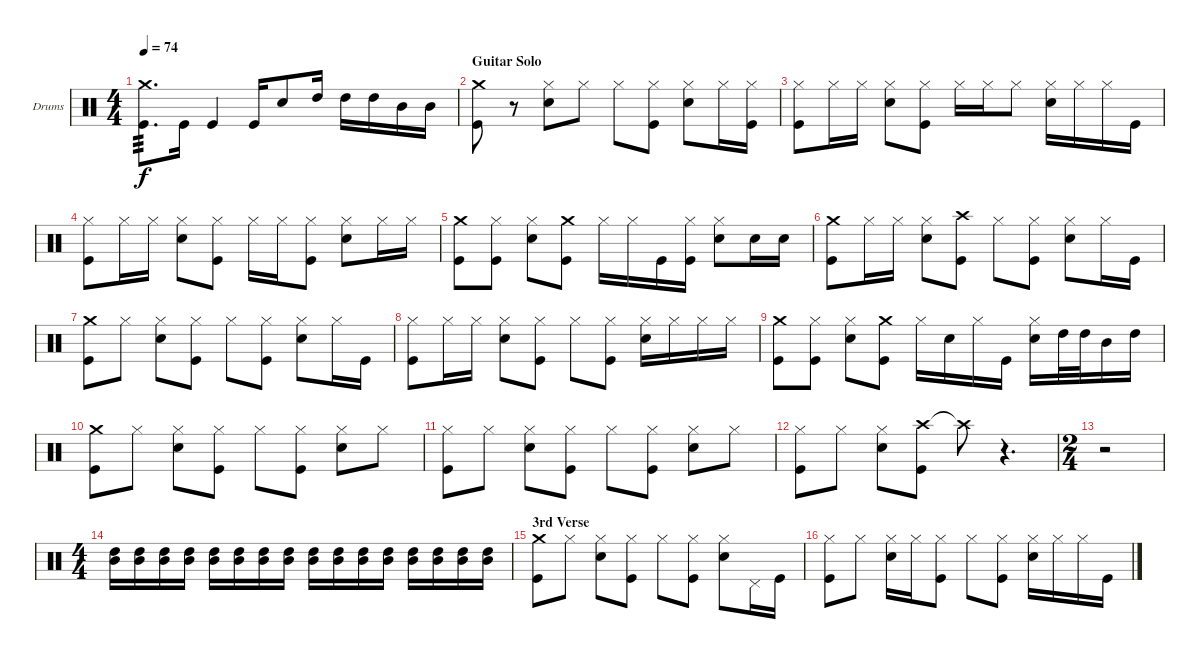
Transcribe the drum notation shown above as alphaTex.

\bracketExtendMode groupsimilarinstruments
\firstSystemTrackNameOrientation horizontal
\otherSystemsTrackNameOrientation horizontal
\track ("Drumkit" "Drums") {instrument percussion}
\staff {score}
\articulation defaults
\ts (4 4)
\tempo 74
\clef neutral
\ks c
("Crash medium (hit)" "Kick (hit)").8{d tp 3 dy f} "Kick (hit)".16 "Kick (hit)".4 "Kick (hit)".16 "Snare (hit) 2".8 "High Tom (hit)".16 "High Tom (hit)".16 "High Tom (hit)".16 "Mid Tom (hit)".16 "Mid Tom (hit)".16 |
\section ("" "Guitar Solo")
("Crash medium (hit)" "Kick (hit)").8 r.8 ("Hi-Hat (closed)" "Snare (hit) 2").8 "Hi-Hat (closed)".8 "Hi-Hat (closed)".8 ("Hi-Hat (closed)" "Kick (hit)").8 ("Hi-Hat (closed)" "Snare (hit) 2").8 "Hi-Hat (closed)".16 ("Hi-Hat (closed)" "Kick (hit)").16 |
("Hi-Hat (closed)" "Kick (hit)").8 "Hi-Hat (closed)".16 "Hi-Hat (closed)".16 ("Hi-Hat (closed)" "Snare (hit) 2").8 ("Hi-Hat (closed)" "Kick (hit)").8 "Hi-Hat (closed)".16 "Hi-Hat (closed)".16 "Hi-Hat (closed)".8 ("Hi-Hat (closed)" "Snare (hit) 2").16 "Hi-Hat (closed)".16 "Hi-Hat (closed)".16 "Kick (hit)".16 |
("Hi-Hat (closed)" "Kick (hit)").8 "Hi-Hat (closed)".16 "Hi-Hat (closed)".16 ("Hi-Hat (closed)" "Snare (hit) 2").8 ("Hi-Hat (closed)" "Kick (hit)").8 "Hi-Hat (closed)".16 "Hi-Hat (closed)".16 ("Hi-Hat (closed)" "Kick (hit)").8 ("Hi-Hat (closed)" "Snare (hit) 2").8 "Hi-Hat (closed)".16 "Hi-Hat (closed)".16 |
("Crash medium (hit)" "Kick (hit)").8 ("Hi-Hat (closed)" "Kick (hit)").8 ("Hi-Hat (closed)" "Snare (hit) 2").8 ("Crash medium (hit)" "Kick (hit)").8 "Hi-Hat (closed)".16 "Hi-Hat (closed)".16 "Kick (hit)".16 ("Hi-Hat (closed)" "Kick (hit)").16 ("Hi-Hat (closed)" "Snare (hit) 2").8 "Snare (hit) 2".16 "Snare (hit) 2".16 |
("Crash medium (hit)" "Kick (hit)").8 "Hi-Hat (closed)".16 "Hi-Hat (closed)".16 ("Hi-Hat (closed)" "Snare (hit) 2").8 ("Crash high (hit)" "Kick (hit)").8 "Hi-Hat (closed)".8 ("Hi-Hat (closed)" "Kick (hit)").8 ("Hi-Hat (closed)" "Snare (hit) 2").8 "Hi-Hat (closed)".16 "Kick (hit)".16 |
("Crash medium (hit)" "Kick (hit)").8 "Hi-Hat (closed)".8 ("Hi-Hat (closed)" "Snare (hit) 2").8 ("Hi-Hat (closed)" "Kick (hit)").8 "Hi-Hat (closed)".8 ("Hi-Hat (closed)" "Kick (hit)").8 ("Hi-Hat (closed)" "Snare (hit) 2").8 "Hi-Hat (closed)".16 "Kick (hit)".16 |
("Hi-Hat (closed)" "Kick (hit)").8 "Hi-Hat (closed)".16 "Hi-Hat (closed)".16 ("Hi-Hat (closed)" "Snare (hit) 2").8 ("Hi-Hat (closed)" "Kick (hit)").8 "Hi-Hat (closed)".8 ("Hi-Hat (closed)" "Kick (hit)").8 ("Hi-Hat (closed)" "Snare (hit) 2").16 "Hi-Hat (closed)".16 "Hi-Hat (closed)".16 "Hi-Hat (closed)".16 |
("Crash medium (hit)" "Kick (hit)").8 ("Hi-Hat (closed)" "Kick (hit)").8 ("Hi-Hat (closed)" "Snare (hit) 2").8 ("Crash medium (hit)" "Kick (hit)").8 "Hi-Hat (closed)".16 "Snare (hit) 2".16 "Hi-Hat (closed)".16 "Kick (hit)".16 ("Hi-Hat (closed)" "Snare (hit) 2").16 "High Tom (hit)".32 "High Tom (hit)".32 "Mid Tom (hit)".16 "High Tom (hit)".16 |
("Crash medium (hit)" "Kick (hit)").8 "Hi-Hat (closed)".8 ("Hi-Hat (closed)" "Snare (hit) 2").8 ("Hi-Hat (closed)" "Kick (hit)").8 "Hi-Hat (closed)".8 ("Hi-Hat (closed)" "Kick (hit)").8 ("Hi-Hat (closed)" "Snare (hit) 2").8 "Hi-Hat (closed)".8 |
("Hi-Hat (closed)" "Kick (hit)").8 "Hi-Hat (closed)".8 ("Hi-Hat (closed)" "Snare (hit) 2").8 ("Hi-Hat (closed)" "Kick (hit)").8 "Hi-Hat (closed)".8 ("Hi-Hat (closed)" "Kick (hit)").8 ("Hi-Hat (closed)" "Snare (hit) 2").8 "Hi-Hat (closed)".8 |
("Hi-Hat (closed)" "Kick (hit)").8 "Hi-Hat (closed)".8 ("Hi-Hat (closed)" "Snare (hit) 2").8 ("Crash high (hit)" "Kick (hit)").8 "Crash high (hit)"{t}.8 r.4{d} |
\ts (2 4)
r.2 |
\ts (4 4)
("High Tom (hit)" "Mid Tom (hit)").16 ("High Tom (hit)" "Mid Tom (hit)").16 ("High Tom (hit)" "Mid Tom (hit)").16 ("High Tom (hit)" "Mid Tom (hit)").16 ("High Tom (hit)" "Mid Tom (hit)").16 ("High Tom (hit)" "Mid Tom (hit)").16 ("High Tom (hit)" "Mid Tom (hit)").16 ("High Tom (hit)" "Mid Tom (hit)").16 ("High Tom (hit)" "Mid Tom (hit)").16 ("High Tom (hit)" "Mid Tom (hit)").16 ("High Tom (hit)" "Mid Tom (hit)").16 ("High Tom (hit)" "Mid Tom (hit)").16 ("High Tom (hit)" "Mid Tom (hit)").16 ("High Tom (hit)" "Mid Tom (hit)").16 ("High Tom (hit)" "Mid Tom (hit)").16 ("High Tom (hit)" "Mid Tom (hit)").16 |
\section ("" "3rd Verse")
("Crash medium (hit)" "Kick (hit)").8 "Hi-Hat (closed)".8 ("Hi-Hat (closed)" "Snare (hit) 2").8 ("Hi-Hat (closed)" "Kick (hit)").8 "Hi-Hat (closed)".8 ("Hi-Hat (closed)" "Kick (hit)").8 ("Hi-Hat (closed)" "Snare (hit) 2").8 "Pedal Hi-Hat (hit)".16 "Kick (hit)".16 |
("Hi-Hat (closed)" "Kick (hit)").8 "Hi-Hat (closed)".8 ("Hi-Hat (closed)" "Snare (hit) 2").16 "Hi-Hat (closed)".16 ("Hi-Hat (closed)" "Kick (hit)").8 "Hi-Hat (closed)".8 ("Hi-Hat (closed)" "Kick (hit)").8 ("Hi-Hat (closed)" "Snare (hit) 2").16 "Hi-Hat (closed)".16 "Hi-Hat (closed)".16 "Kick (hit)".16
